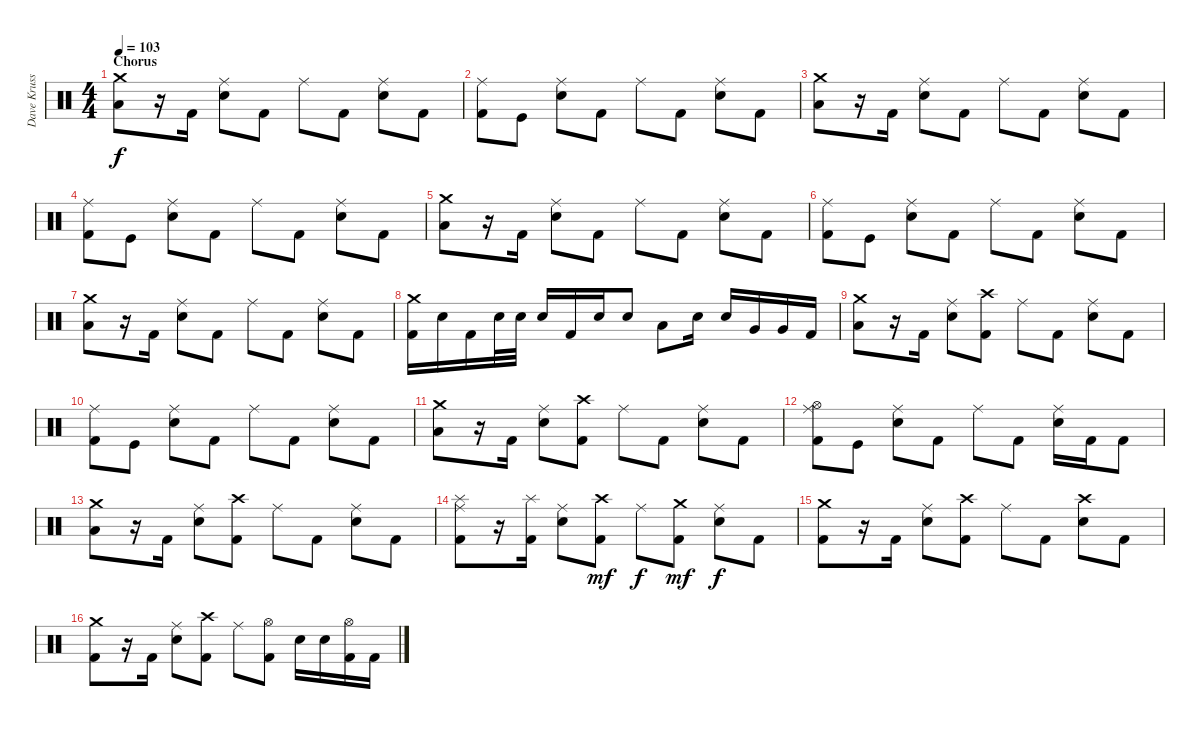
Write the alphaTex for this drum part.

\track ("Dave Krussen" "Dave Kruss") {instrument percussion}
\staff {score}
\articulation defaults
\ts (4 4)
\section ("" "Chorus")
\tempo 103
\clef neutral
\ks c
("Crash medium (hit)" "Low Floor Tom (hit)").8{dy f} r.16 "Kick (hit) 2".16 ("Ride (middle)" "Electric Snare (hit)").8 "Kick (hit) 2".8 "Ride (middle)".8 "Kick (hit) 2".8 ("Ride (middle)" "Electric Snare (hit)").8 "Kick (hit) 2".8 |
("Ride (middle)" "Kick (hit) 2").8 "Kick (hit)".8 ("Ride (middle)" "Electric Snare (hit)").8 "Kick (hit) 2".8 "Ride (middle)".8 "Kick (hit) 2".8 ("Ride (middle)" "Electric Snare (hit)").8 "Kick (hit) 2".8 |
("Crash medium (hit)" "Low Floor Tom (hit)").8 r.16 "Kick (hit) 2".16 ("Ride (middle)" "Electric Snare (hit)").8 "Kick (hit) 2".8 "Ride (middle)".8 "Kick (hit) 2".8 ("Ride (middle)" "Electric Snare (hit)").8 "Kick (hit) 2".8 |
("Ride (middle)" "Kick (hit) 2").8 "Kick (hit)".8 ("Ride (middle)" "Electric Snare (hit)").8 "Kick (hit) 2".8 "Ride (middle)".8 "Kick (hit) 2".8 ("Ride (middle)" "Electric Snare (hit)").8 "Kick (hit) 2".8 |
("Crash medium (hit)" "Low Floor Tom (hit)").8 r.16 "Kick (hit) 2".16 ("Ride (middle)" "Electric Snare (hit)").8 "Kick (hit) 2".8 "Ride (middle)".8 "Kick (hit) 2".8 ("Ride (middle)" "Electric Snare (hit)").8 "Kick (hit) 2".8 |
("Ride (middle)" "Kick (hit) 2").8 "Kick (hit)".8 ("Ride (middle)" "Electric Snare (hit)").8 "Kick (hit) 2".8 "Ride (middle)".8 "Kick (hit) 2".8 ("Ride (middle)" "Electric Snare (hit)").8 "Kick (hit) 2".8 |
("Crash medium (hit)" "Low Floor Tom (hit)").8 r.16 "Kick (hit) 2".16 ("Ride (middle)" "Electric Snare (hit)").8 "Kick (hit) 2".8 "Ride (middle)".8 "Kick (hit) 2".8 ("Ride (middle)" "Electric Snare (hit)").8 "Kick (hit) 2".8 |
("Crash medium (hit)" "Kick (hit) 2").16 "Electric Snare (hit)".16 "Kick (hit) 2".16 "Electric Snare (hit)".32 "Electric Snare (hit)".32 "Electric Snare (hit)".16 "Kick (hit) 2".16 "Electric Snare (hit)".16 "Electric Snare (hit)".8 "Low Tom (hit)".8 "Electric Snare (hit)".16 "Electric Snare (hit)".16 "Very Low Tom (hit)".16 "Very Low Tom (hit)".16 "Kick (hit) 2".16 |
("Crash medium (hit)" "Low Floor Tom (hit)").8 r.16 "Kick (hit) 2".16 ("Ride (middle)" "Electric Snare (hit)").8 ("Crash high (hit)" "Kick (hit) 2").8 "Ride (middle)".8 "Kick (hit) 2".8 ("Ride (middle)" "Electric Snare (hit)").8 "Kick (hit) 2".8 |
("Ride (middle)" "Kick (hit) 2").8 "Kick (hit)".8 ("Ride (middle)" "Electric Snare (hit)").8 "Kick (hit) 2".8 "Ride (middle)".8 "Kick (hit) 2".8 ("Ride (middle)" "Electric Snare (hit)").8 "Kick (hit) 2".8 |
("Crash medium (hit)" "Low Floor Tom (hit)").8 r.16 "Kick (hit) 2".16 ("Ride (middle)" "Electric Snare (hit)").8 ("Crash high (hit)" "Kick (hit) 2").8 "Ride (middle)".8 "Kick (hit) 2".8 ("Ride (middle)" "Electric Snare (hit)").8 "Kick (hit) 2".8 |
("Ride (middle)" "Hi-Hat (open)" "Kick (hit) 2").8 "Kick (hit)".8 ("Ride (middle)" "Electric Snare (hit)").8 "Kick (hit) 2".8 "Ride (middle)".8 "Kick (hit) 2".8 ("Ride (middle)" "Electric Snare (hit)").16 "Kick (hit) 2".16 "Kick (hit) 2".8 |
("Crash medium (hit)" "Low Floor Tom (hit)").8 r.16 "Kick (hit) 2".16 ("Ride (middle)" "Electric Snare (hit)").8 ("Crash high (hit)" "Kick (hit) 2").8 "Ride (middle)".8 "Kick (hit) 2".8 ("Ride (middle)" "Electric Snare (hit)").8 "Kick (hit) 2".8 |
("Ride (middle)" "Splash (hit)" "Kick (hit) 2").8 r.16 ("Splash (hit)" "Kick (hit) 2").16 ("Ride (middle)" "Electric Snare (hit)").8 ("Crash high (hit)" "Kick (hit) 2").8{dy mf} "Ride (middle)".8{dy f} ("Crash medium (hit)" "Kick (hit) 2").8{dy mf} ("Ride (middle)" "Electric Snare (hit)").8{dy f} "Kick (hit) 2".8 |
("Crash medium (hit)" "Kick (hit) 2").8 r.16 "Kick (hit) 2".16 ("Ride (middle)" "Electric Snare (hit)").8 ("Crash high (hit)" "Kick (hit) 2").8 "Ride (middle)".8 "Kick (hit) 2".8 ("Crash high (hit)" "Electric Snare (hit)").8 "Kick (hit) 2".8 |
("Crash medium (hit)" "Kick (hit) 2").8 r.16 "Kick (hit) 2".16 ("Ride (middle)" "Electric Snare (hit)").8 ("Crash high (hit)" "Kick (hit) 2").8 "Ride (middle)".8 ("Hi-Hat (open)" "Kick (hit) 2").8 "Electric Snare (hit)".16 "Electric Snare (hit)".16 ("Hi-Hat (open)" "Kick (hit) 2").16 "Kick (hit) 2".16
